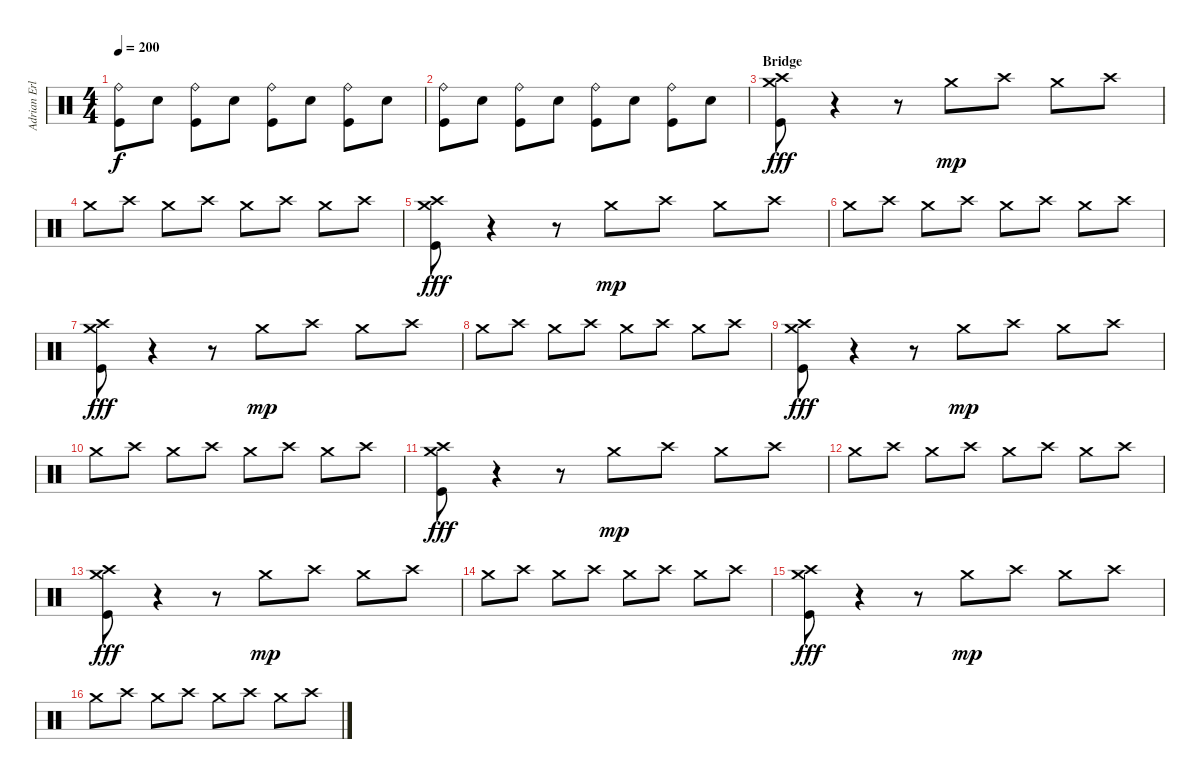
\track ("Adrian Erlandsson" "Adrian Erl") {instrument percussion}
\staff {score}
\articulation defaults
\ts (4 4)
\tempo 200
\clef neutral
\ks c
("Ride (bell)" "Kick (hit)").8{dy f} "Electric Snare (hit)".8 ("Ride (bell)" "Kick (hit)").8 "Electric Snare (hit)".8 ("Ride (bell)" "Kick (hit)").8 "Electric Snare (hit)".8 ("Ride (bell)" "Kick (hit)").8 "Electric Snare (hit)".8 |
("Ride (bell)" "Kick (hit)").8 "Electric Snare (hit)".8 ("Ride (bell)" "Kick (hit)").8 "Electric Snare (hit)".8 ("Ride (bell)" "Kick (hit)").8 "Electric Snare (hit)".8 ("Ride (bell)" "Kick (hit)").8 "Electric Snare (hit)".8 |
\section ("" "Bridge")
("Crash medium (hit)" "Crash high (hit)" "Kick (hit)").8{dy fff} r.4 r.8 "Crash medium (hit)".8{dy mp} "Crash high (hit)".8 "Crash medium (hit)".8 "Crash high (hit)".8 |
"Crash medium (hit)".8 "Crash high (hit)".8 "Crash medium (hit)".8 "Crash high (hit)".8 "Crash medium (hit)".8 "Crash high (hit)".8 "Crash medium (hit)".8 "Crash high (hit)".8 |
("Crash medium (hit)" "Crash high (hit)" "Kick (hit)").8{dy fff} r.4 r.8 "Crash medium (hit)".8{dy mp} "Crash high (hit)".8 "Crash medium (hit)".8 "Crash high (hit)".8 |
"Crash medium (hit)".8 "Crash high (hit)".8 "Crash medium (hit)".8 "Crash high (hit)".8 "Crash medium (hit)".8 "Crash high (hit)".8 "Crash medium (hit)".8 "Crash high (hit)".8 |
("Crash medium (hit)" "Crash high (hit)" "Kick (hit)").8{dy fff} r.4 r.8 "Crash medium (hit)".8{dy mp} "Crash high (hit)".8 "Crash medium (hit)".8 "Crash high (hit)".8 |
"Crash medium (hit)".8 "Crash high (hit)".8 "Crash medium (hit)".8 "Crash high (hit)".8 "Crash medium (hit)".8 "Crash high (hit)".8 "Crash medium (hit)".8 "Crash high (hit)".8 |
("Crash medium (hit)" "Crash high (hit)" "Kick (hit)").8{dy fff} r.4 r.8 "Crash medium (hit)".8{dy mp} "Crash high (hit)".8 "Crash medium (hit)".8 "Crash high (hit)".8 |
"Crash medium (hit)".8 "Crash high (hit)".8 "Crash medium (hit)".8 "Crash high (hit)".8 "Crash medium (hit)".8 "Crash high (hit)".8 "Crash medium (hit)".8 "Crash high (hit)".8 |
("Crash medium (hit)" "Crash high (hit)" "Kick (hit)").8{dy fff} r.4 r.8 "Crash medium (hit)".8{dy mp} "Crash high (hit)".8 "Crash medium (hit)".8 "Crash high (hit)".8 |
"Crash medium (hit)".8 "Crash high (hit)".8 "Crash medium (hit)".8 "Crash high (hit)".8 "Crash medium (hit)".8 "Crash high (hit)".8 "Crash medium (hit)".8 "Crash high (hit)".8 |
("Crash medium (hit)" "Crash high (hit)" "Kick (hit)").8{dy fff} r.4 r.8 "Crash medium (hit)".8{dy mp} "Crash high (hit)".8 "Crash medium (hit)".8 "Crash high (hit)".8 |
"Crash medium (hit)".8 "Crash high (hit)".8 "Crash medium (hit)".8 "Crash high (hit)".8 "Crash medium (hit)".8 "Crash high (hit)".8 "Crash medium (hit)".8 "Crash high (hit)".8 |
("Crash medium (hit)" "Crash high (hit)" "Kick (hit)").8{dy fff} r.4 r.8 "Crash medium (hit)".8{dy mp} "Crash high (hit)".8 "Crash medium (hit)".8 "Crash high (hit)".8 |
"Crash medium (hit)".8 "Crash high (hit)".8 "Crash medium (hit)".8 "Crash high (hit)".8 "Crash medium (hit)".8 "Crash high (hit)".8 "Crash medium (hit)".8 "Crash high (hit)".8
